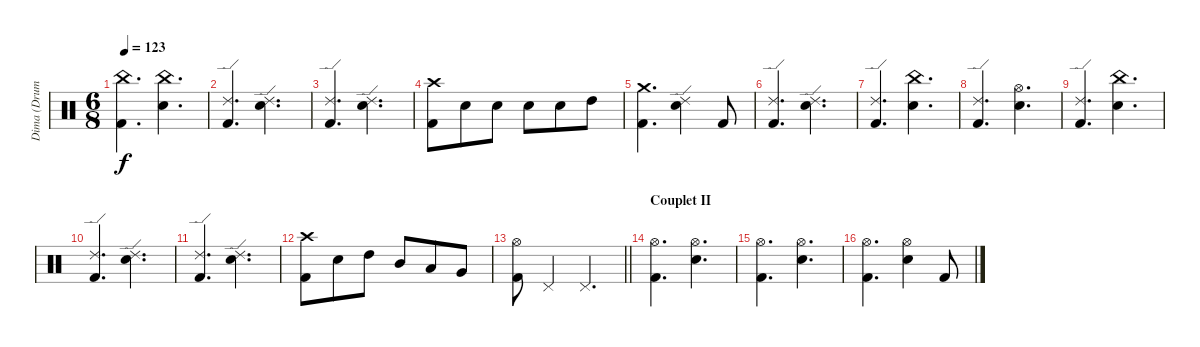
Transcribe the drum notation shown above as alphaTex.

\track ("Dima (Drums)" "Dima (Drum") {instrument percussion}
\staff {score}
\articulation defaults
\ts (6 8)
\tempo 123
\clef neutral
\ks c
("China (hit)" "Kick (hit) 2").4{d dy f} ("China (hit)" "Snare (hit) 2").4{d} |
("Ride (edge) 2" "Kick (hit) 2").4{d} ("Ride (edge) 2" "Snare (hit) 2").4{d} |
("Ride (edge) 2" "Kick (hit) 2").4{d} ("Ride (edge) 2" "Snare (hit) 2").4{d} |
("Crash high (hit)" "Kick (hit) 2").8 "Snare (hit) 2".8 "Snare (hit) 2".8 "Snare (hit) 2".8 "Snare (hit) 2".8 "High Tom (hit)".8 |
("Crash medium (hit)" "Kick (hit) 2").4{d} ("Ride (edge) 2" "Snare (hit) 2").4 "Kick (hit) 2".8 |
("Ride (edge) 2" "Kick (hit) 2").4{d} ("Ride (edge) 2" "Snare (hit) 2").4{d} |
("Ride (edge) 2" "Kick (hit) 2").4{d} ("China (hit)" "Snare (hit) 2").4{d} |
("Ride (edge) 2" "Kick (hit) 2").4{d} ("Hi-Hat (open)" "Snare (hit) 2").4{d} |
("Ride (edge) 2" "Kick (hit) 2").4{d} ("China (hit)" "Snare (hit) 2").4{d} |
("Ride (edge) 2" "Kick (hit) 2").4{d} ("Ride (edge) 2" "Snare (hit) 2").4{d} |
("Ride (edge) 2" "Kick (hit) 2").4{d} ("Ride (edge) 2" "Snare (hit) 2").4{d} |
("Crash high (hit)" "Kick (hit) 2").8 "Snare (hit) 2".8 "High Tom (hit)".8 "Mid Tom (hit)".8 "Low Tom (hit)".8 "Very Low Tom (hit)".8 |
\barLineRight lightlight
("Hi-Hat (open)" "Kick (hit) 2").8 "Pedal Hi-Hat (hit)".4 "Pedal Hi-Hat (hit)".4{d} |
\section ("" "Couplet II")
("Hi-Hat (open)" "Kick (hit) 2").4{d} ("Hi-Hat (open)" "Snare (hit) 2").4{d} |
("Hi-Hat (open)" "Kick (hit) 2").4{d} ("Hi-Hat (open)" "Snare (hit) 2").4{d} |
("Hi-Hat (open)" "Kick (hit) 2").4{d} ("Hi-Hat (open)" "Snare (hit) 2").4 "Kick (hit) 2".8
